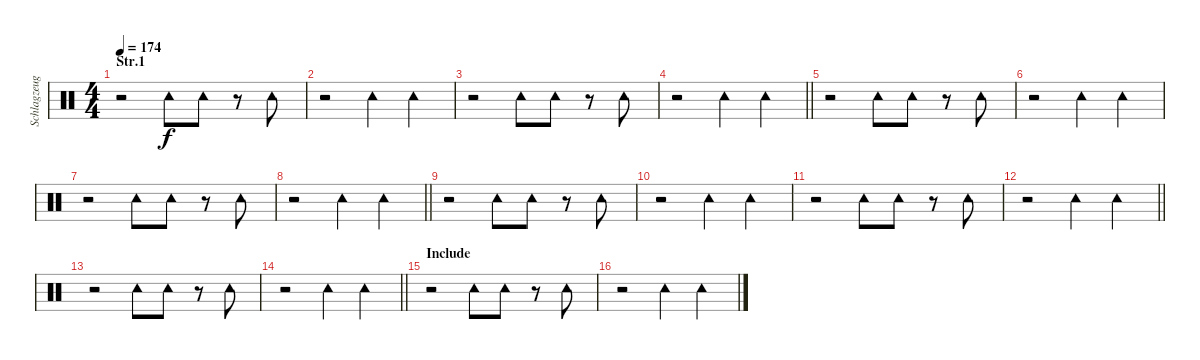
\track ("Schlagzeug" "Schlagzeug") {instrument percussion}
\staff {score}
\articulation defaults
\ts (4 4)
\section ("" "Str.1")
\tempo 174
\clef neutral
\ks c
r.2{dy f} "Tambourine (hit)".8 "Tambourine (hit)".8 r.8 "Tambourine (hit)".8 |
r.2 "Tambourine (hit)".4 "Tambourine (hit)".4 |
r.2 "Tambourine (hit)".8 "Tambourine (hit)".8 r.8 "Tambourine (hit)".8 |
\barLineRight lightlight
r.2 "Tambourine (hit)".4 "Tambourine (hit)".4 |
r.2 "Tambourine (hit)".8 "Tambourine (hit)".8 r.8 "Tambourine (hit)".8 |
r.2 "Tambourine (hit)".4 "Tambourine (hit)".4 |
r.2 "Tambourine (hit)".8 "Tambourine (hit)".8 r.8 "Tambourine (hit)".8 |
\barLineRight lightlight
r.2 "Tambourine (hit)".4 "Tambourine (hit)".4 |
r.2 "Tambourine (hit)".8 "Tambourine (hit)".8 r.8 "Tambourine (hit)".8 |
r.2 "Tambourine (hit)".4 "Tambourine (hit)".4 |
r.2 "Tambourine (hit)".8 "Tambourine (hit)".8 r.8 "Tambourine (hit)".8 |
\barLineRight lightlight
r.2 "Tambourine (hit)".4 "Tambourine (hit)".4 |
r.2 "Tambourine (hit)".8 "Tambourine (hit)".8 r.8 "Tambourine (hit)".8 |
\barLineRight lightlight
r.2 "Tambourine (hit)".4 "Tambourine (hit)".4 |
\section ("" "Include")
r.2 "Tambourine (hit)".8 "Tambourine (hit)".8 r.8 "Tambourine (hit)".8 |
r.2 "Tambourine (hit)".4 "Tambourine (hit)".4
